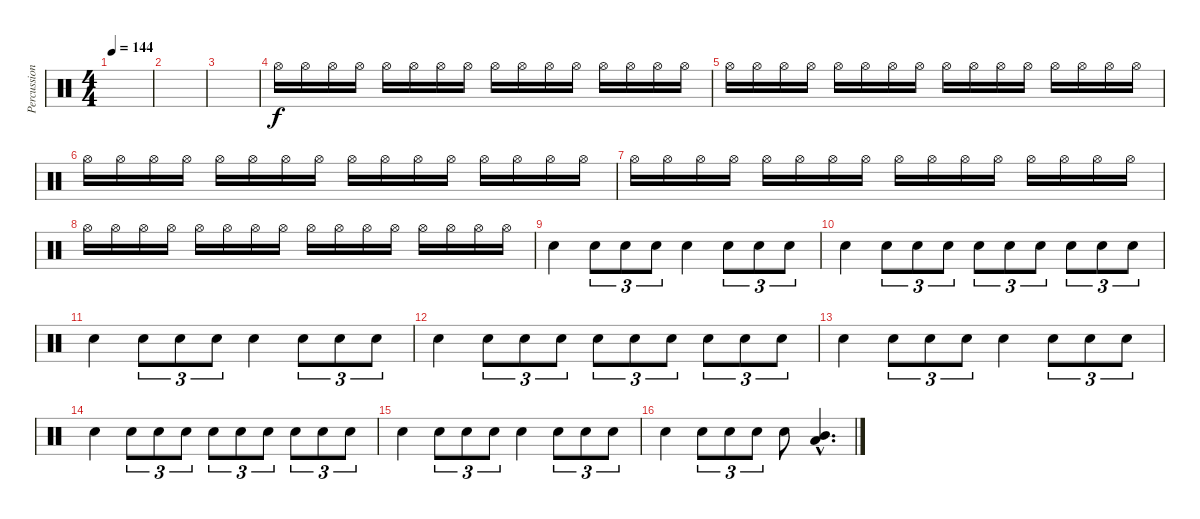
\track ("Percussion" "Percussion") {instrument percussion}
\staff {score}
\articulation defaults
\ts (4 4)
\tempo 144
\clef neutral
\ks c
|
|
|
"Hi-Hat (open)".16{volume 0} "Hi-Hat (open)".16 "Hi-Hat (open)".16 "Hi-Hat (open)".16 "Hi-Hat (open)".16 "Hi-Hat (open)".16 "Hi-Hat (open)".16 "Hi-Hat (open)".16 "Hi-Hat (open)".16 "Hi-Hat (open)".16 "Hi-Hat (open)".16 "Hi-Hat (open)".16 "Hi-Hat (open)".16 "Hi-Hat (open)".16 "Hi-Hat (open)".16 "Hi-Hat (open)".16 |
"Hi-Hat (open)".16{volume 16} "Hi-Hat (open)".16 "Hi-Hat (open)".16 "Hi-Hat (open)".16 "Hi-Hat (open)".16 "Hi-Hat (open)".16 "Hi-Hat (open)".16 "Hi-Hat (open)".16 "Hi-Hat (open)".16 "Hi-Hat (open)".16 "Hi-Hat (open)".16 "Hi-Hat (open)".16 "Hi-Hat (open)".16 "Hi-Hat (open)".16 "Hi-Hat (open)".16 "Hi-Hat (open)".16 |
"Hi-Hat (open)".16 "Hi-Hat (open)".16 "Hi-Hat (open)".16 "Hi-Hat (open)".16 "Hi-Hat (open)".16 "Hi-Hat (open)".16 "Hi-Hat (open)".16 "Hi-Hat (open)".16 "Hi-Hat (open)".16 "Hi-Hat (open)".16 "Hi-Hat (open)".16 "Hi-Hat (open)".16 "Hi-Hat (open)".16 "Hi-Hat (open)".16 "Hi-Hat (open)".16 "Hi-Hat (open)".16 |
"Hi-Hat (open)".16 "Hi-Hat (open)".16 "Hi-Hat (open)".16 "Hi-Hat (open)".16 "Hi-Hat (open)".16 "Hi-Hat (open)".16 "Hi-Hat (open)".16 "Hi-Hat (open)".16 "Hi-Hat (open)".16 "Hi-Hat (open)".16 "Hi-Hat (open)".16 "Hi-Hat (open)".16 "Hi-Hat (open)".16 "Hi-Hat (open)".16 "Hi-Hat (open)".16 "Hi-Hat (open)".16 |
"Hi-Hat (open)".16 "Hi-Hat (open)".16 "Hi-Hat (open)".16 "Hi-Hat (open)".16 "Hi-Hat (open)".16 "Hi-Hat (open)".16 "Hi-Hat (open)".16 "Hi-Hat (open)".16 "Hi-Hat (open)".16 "Hi-Hat (open)".16 "Hi-Hat (open)".16 "Hi-Hat (open)".16 "Hi-Hat (open)".16 "Hi-Hat (open)".16 "Hi-Hat (open)".16 "Hi-Hat (open)".16 |
"Snare (hit) 2".4 "Snare (hit) 2".8{tu (3 2)} "Snare (hit) 2".8{tu (3 2)} "Snare (hit) 2".8{tu (3 2)} "Snare (hit) 2".4 "Snare (hit) 2".8{tu (3 2)} "Snare (hit) 2".8{tu (3 2)} "Snare (hit) 2".8{tu (3 2)} |
"Snare (hit) 2".4 "Snare (hit) 2".8{tu (3 2)} "Snare (hit) 2".8{tu (3 2)} "Snare (hit) 2".8{tu (3 2)} "Snare (hit) 2".8{tu (3 2)} "Snare (hit) 2".8{tu (3 2)} "Snare (hit) 2".8{tu (3 2)} "Snare (hit) 2".8{tu (3 2)} "Snare (hit) 2".8{tu (3 2)} "Snare (hit) 2".8{tu (3 2)} |
"Snare (hit) 2".4 "Snare (hit) 2".8{tu (3 2)} "Snare (hit) 2".8{tu (3 2)} "Snare (hit) 2".8{tu (3 2)} "Snare (hit) 2".4 "Snare (hit) 2".8{tu (3 2)} "Snare (hit) 2".8{tu (3 2)} "Snare (hit) 2".8{tu (3 2)} |
"Snare (hit) 2".4 "Snare (hit) 2".8{tu (3 2)} "Snare (hit) 2".8{tu (3 2)} "Snare (hit) 2".8{tu (3 2)} "Snare (hit) 2".8{tu (3 2)} "Snare (hit) 2".8{tu (3 2)} "Snare (hit) 2".8{tu (3 2)} "Snare (hit) 2".8{tu (3 2)} "Snare (hit) 2".8{tu (3 2)} "Snare (hit) 2".8{tu (3 2)} |
"Snare (hit) 2".4 "Snare (hit) 2".8{tu (3 2)} "Snare (hit) 2".8{tu (3 2)} "Snare (hit) 2".8{tu (3 2)} "Snare (hit) 2".4 "Snare (hit) 2".8{tu (3 2)} "Snare (hit) 2".8{tu (3 2)} "Snare (hit) 2".8{tu (3 2)} |
"Snare (hit) 2".4 "Snare (hit) 2".8{tu (3 2)} "Snare (hit) 2".8{tu (3 2)} "Snare (hit) 2".8{tu (3 2)} "Snare (hit) 2".8{tu (3 2)} "Snare (hit) 2".8{tu (3 2)} "Snare (hit) 2".8{tu (3 2)} "Snare (hit) 2".8{tu (3 2)} "Snare (hit) 2".8{tu (3 2)} "Snare (hit) 2".8{tu (3 2)} |
"Snare (hit) 2".4 "Snare (hit) 2".8{tu (3 2)} "Snare (hit) 2".8{tu (3 2)} "Snare (hit) 2".8{tu (3 2)} "Snare (hit) 2".4 "Snare (hit) 2".8{tu (3 2)} "Snare (hit) 2".8{tu (3 2)} "Snare (hit) 2".8{tu (3 2)} |
"Snare (hit) 2".4 "Snare (hit) 2".8{tu (3 2)} "Snare (hit) 2".8{tu (3 2)} "Snare (hit) 2".8{tu (3 2)} "Snare (hit) 2".8 ("Mid Tom (hit)"{hac} "Low Tom (hit)"{hac}).4{d}
